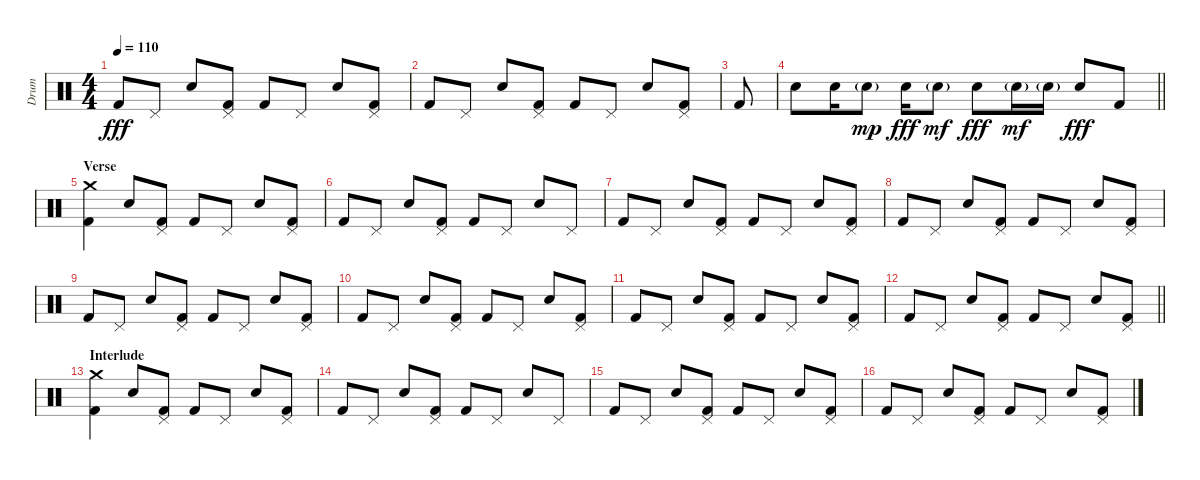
\track ("Drum" "Drum") {instrument percussion}
\staff {score}
\articulation defaults
\ts (4 4)
\tempo 110
\clef neutral
\ks c "Kick (hit) 2".8{dy fff} "Pedal Hi-Hat (hit)".8 "Electric Snare (hit)".8
("Pedal Hi-Hat (hit)" "Kick (hit) 2").8 "Kick (hit) 2".8 "Pedal Hi-Hat (hit)".8 "Electric Snare (hit)".8 ("Pedal Hi-Hat (hit)" "Kick (hit) 2").8 |
"Kick (hit) 2".8 "Pedal Hi-Hat (hit)".8 "Electric Snare (hit)".8 ("Pedal Hi-Hat (hit)" "Kick (hit) 2").8 "Kick (hit) 2".8 "Pedal Hi-Hat (hit)".8 "Electric Snare (hit)".8 ("Pedal Hi-Hat (hit)" "Kick (hit) 2").8 |
"Kick (hit) 2".8 |
\barLineRight lightlight "Electric Snare (hit)".8 "Electric Snare (hit)".16 "Electric Snare (hit)"{g}.8{dy mp} "Electric Snare (hit)".16{dy fff} "Electric Snare (hit)"{g}.8{dy mf} "Electric Snare (hit)".8{dy fff} "Electric Snare (hit)"{g}.16{dy mf} "Electric Snare (hit)"{g}.16 "Electric Snare (hit)".8{dy fff} "Kick (hit) 2".8
|
\section ("" "Verse")
("Crash medium (hit)" "Kick (hit) 2").4 "Electric Snare (hit)".8 ("Pedal Hi-Hat (hit)" "Kick (hit) 2").8 "Kick (hit) 2".8 "Pedal Hi-Hat (hit)".8 "Electric Snare (hit)".8 ("Pedal Hi-Hat (hit)" "Kick (hit) 2").8 |
"Kick (hit) 2".8 "Pedal Hi-Hat (hit)".8 "Electric Snare (hit)".8 ("Pedal Hi-Hat (hit)" "Kick (hit) 2").8 "Kick (hit) 2".8 "Pedal Hi-Hat (hit)".8 "Electric Snare (hit)".8 "Pedal Hi-Hat (hit)".8 |
"Kick (hit) 2".8 "Pedal Hi-Hat (hit)".8 "Electric Snare (hit)".8 ("Pedal Hi-Hat (hit)" "Kick (hit) 2").8 "Kick (hit) 2".8 "Pedal Hi-Hat (hit)".8 "Electric Snare (hit)".8 ("Pedal Hi-Hat (hit)" "Kick (hit) 2").8 |
"Kick (hit) 2".8 "Pedal Hi-Hat (hit)".8 "Electric Snare (hit)".8 ("Pedal Hi-Hat (hit)" "Kick (hit) 2").8 "Kick (hit) 2".8 "Pedal Hi-Hat (hit)".8 "Electric Snare (hit)".8 ("Pedal Hi-Hat (hit)" "Kick (hit) 2").8 |
"Kick (hit) 2".8 "Pedal Hi-Hat (hit)".8 "Electric Snare (hit)".8 ("Pedal Hi-Hat (hit)" "Kick (hit) 2").8 "Kick (hit) 2".8 "Pedal Hi-Hat (hit)".8 "Electric Snare (hit)".8 ("Pedal Hi-Hat (hit)" "Kick (hit) 2").8 |
"Kick (hit) 2".8 "Pedal Hi-Hat (hit)".8 "Electric Snare (hit)".8 ("Pedal Hi-Hat (hit)" "Kick (hit) 2").8 "Kick (hit) 2".8 "Pedal Hi-Hat (hit)".8 "Electric Snare (hit)".8 ("Pedal Hi-Hat (hit)" "Kick (hit) 2").8 |
"Kick (hit) 2".8 "Pedal Hi-Hat (hit)".8 "Electric Snare (hit)".8 ("Pedal Hi-Hat (hit)" "Kick (hit) 2").8 "Kick (hit) 2".8 "Pedal Hi-Hat (hit)".8 "Electric Snare (hit)".8 ("Pedal Hi-Hat (hit)" "Kick (hit) 2").8 |
\barLineRight lightlight "Kick (hit) 2".8 "Pedal Hi-Hat (hit)".8 "Electric Snare (hit)".8
("Pedal Hi-Hat (hit)" "Kick (hit) 2").8 "Kick (hit) 2".8 "Pedal Hi-Hat (hit)".8 "Electric Snare (hit)".8 ("Pedal Hi-Hat (hit)" "Kick (hit) 2").8 |
\section ("" "Interlude")
("Crash medium (hit)" "Kick (hit) 2").4 "Electric Snare (hit)".8 ("Pedal Hi-Hat (hit)" "Kick (hit) 2").8 "Kick (hit) 2".8 "Pedal Hi-Hat (hit)".8 "Electric Snare (hit)".8 ("Pedal Hi-Hat (hit)" "Kick (hit) 2").8 |
"Kick (hit) 2".8 "Pedal Hi-Hat (hit)".8 "Electric Snare (hit)".8 ("Pedal Hi-Hat (hit)" "Kick (hit) 2").8 "Kick (hit) 2".8 "Pedal Hi-Hat (hit)".8 "Electric Snare (hit)".8 "Pedal Hi-Hat (hit)".8 |
"Kick (hit) 2".8 "Pedal Hi-Hat (hit)".8 "Electric Snare (hit)".8 ("Pedal Hi-Hat (hit)" "Kick (hit) 2").8 "Kick (hit) 2".8 "Pedal Hi-Hat (hit)".8 "Electric Snare (hit)".8 ("Pedal Hi-Hat (hit)" "Kick (hit) 2").8 |
"Kick (hit) 2".8 "Pedal Hi-Hat (hit)".8 "Electric Snare (hit)".8 ("Pedal Hi-Hat (hit)" "Kick (hit) 2").8 "Kick (hit) 2".8 "Pedal Hi-Hat (hit)".8 "Electric Snare (hit)".8 ("Pedal Hi-Hat (hit)" "Kick (hit) 2").8
